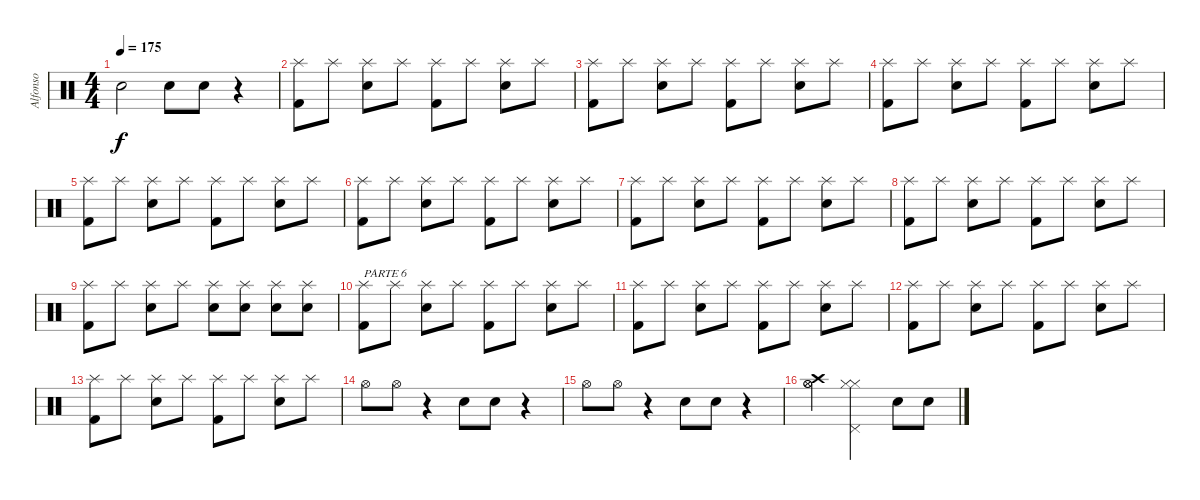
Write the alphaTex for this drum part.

\track ("Alfonso" "Alfonso") {instrument percussion}
\staff {score}
\articulation defaults
\ts (4 4)
\tempo 175
\clef neutral
\ks c "Electric Snare (hit)".2{dy f} "Electric Snare (hit)".8 "Electric Snare (hit)".8
r.4 |
("Splash (hit)" "Kick (hit) 2").8 "Splash (hit)".8 ("Splash (hit)" "Electric Snare (hit)").8 "Splash (hit)".8 ("Splash (hit)" "Kick (hit) 2").8 "Splash (hit)".8 ("Splash (hit)" "Electric Snare (hit)").8 "Splash (hit)".8 |
("Splash (hit)" "Kick (hit) 2").8 "Splash (hit)".8 ("Splash (hit)" "Electric Snare (hit)").8 "Splash (hit)".8 ("Splash (hit)" "Kick (hit) 2").8 "Splash (hit)".8 ("Splash (hit)" "Electric Snare (hit)").8 "Splash (hit)".8 |
("Splash (hit)" "Kick (hit) 2").8 "Splash (hit)".8 ("Splash (hit)" "Electric Snare (hit)").8 "Splash (hit)".8 ("Splash (hit)" "Kick (hit) 2").8 "Splash (hit)".8 ("Splash (hit)" "Electric Snare (hit)").8 "Splash (hit)".8 |
("Splash (hit)" "Kick (hit) 2").8 "Splash (hit)".8 ("Splash (hit)" "Electric Snare (hit)").8 "Splash (hit)".8 ("Splash (hit)" "Kick (hit) 2").8 "Splash (hit)".8 ("Splash (hit)" "Electric Snare (hit)").8 "Splash (hit)".8 |
("Splash (hit)" "Kick (hit) 2").8 "Splash (hit)".8 ("Splash (hit)" "Electric Snare (hit)").8 "Splash (hit)".8 ("Splash (hit)" "Kick (hit) 2").8 "Splash (hit)".8 ("Splash (hit)" "Electric Snare (hit)").8 "Splash (hit)".8 |
("Splash (hit)" "Kick (hit) 2").8 "Splash (hit)".8 ("Splash (hit)" "Electric Snare (hit)").8 "Splash (hit)".8 ("Splash (hit)" "Kick (hit) 2").8 "Splash (hit)".8 ("Splash (hit)" "Electric Snare (hit)").8 "Splash (hit)".8 |
("Splash (hit)" "Kick (hit) 2").8 "Splash (hit)".8 ("Splash (hit)" "Electric Snare (hit)").8 "Splash (hit)".8 ("Splash (hit)" "Kick (hit) 2").8 "Splash (hit)".8 ("Splash (hit)" "Electric Snare (hit)").8 "Splash (hit)".8 |
("Splash (hit)" "Kick (hit) 2").8 "Splash (hit)".8 ("Splash (hit)" "Electric Snare (hit)").8 "Splash (hit)".8 ("Splash (hit)" "Electric Snare (hit)").8 ("Splash (hit)" "Electric Snare (hit)").8 ("Splash (hit)" "Electric Snare (hit)").8 ("Splash (hit)" "Electric Snare (hit)").8 |
("Splash (hit)" "Kick (hit) 2").8{txt "PARTE 6"} "Splash (hit)".8 ("Splash (hit)" "Electric Snare (hit)").8 "Splash (hit)".8 ("Splash (hit)" "Kick (hit) 2").8 "Splash (hit)".8 ("Splash (hit)" "Electric Snare (hit)").8 "Splash (hit)".8 |
("Splash (hit)" "Kick (hit) 2").8 "Splash (hit)".8 ("Splash (hit)" "Electric Snare (hit)").8 "Splash (hit)".8 ("Splash (hit)" "Kick (hit) 2").8 "Splash (hit)".8 ("Splash (hit)" "Electric Snare (hit)").8 "Splash (hit)".8 |
("Splash (hit)" "Kick (hit) 2").8 "Splash (hit)".8 ("Splash (hit)" "Electric Snare (hit)").8 "Splash (hit)".8 ("Splash (hit)" "Kick (hit) 2").8 "Splash (hit)".8 ("Splash (hit)" "Electric Snare (hit)").8 "Splash (hit)".8 |
("Splash (hit)" "Kick (hit) 2").8 "Splash (hit)".8 ("Splash (hit)" "Electric Snare (hit)").8 "Splash (hit)".8 ("Splash (hit)" "Kick (hit) 2").8 "Splash (hit)".8 ("Splash (hit)" "Electric Snare (hit)").8 "Splash (hit)".8 |
"Hi-Hat (open)".8 "Hi-Hat (open)".8 r.4 "Electric Snare (hit)".8 "Electric Snare (hit)".8 r.4 |
"Hi-Hat (open)".8 "Hi-Hat (open)".8 r.4 "Electric Snare (hit)".8 "Electric Snare (hit)".8 r.4 |
("Hi-Hat (open)" "Crash high (hit)" "Hi-Hat (open)").4 ("Hi-Hat (closed)" "Pedal Hi-Hat (hit)" "Hi-Hat (closed)").2 "Electric Snare (hit)".8 "Electric Snare (hit)".8
